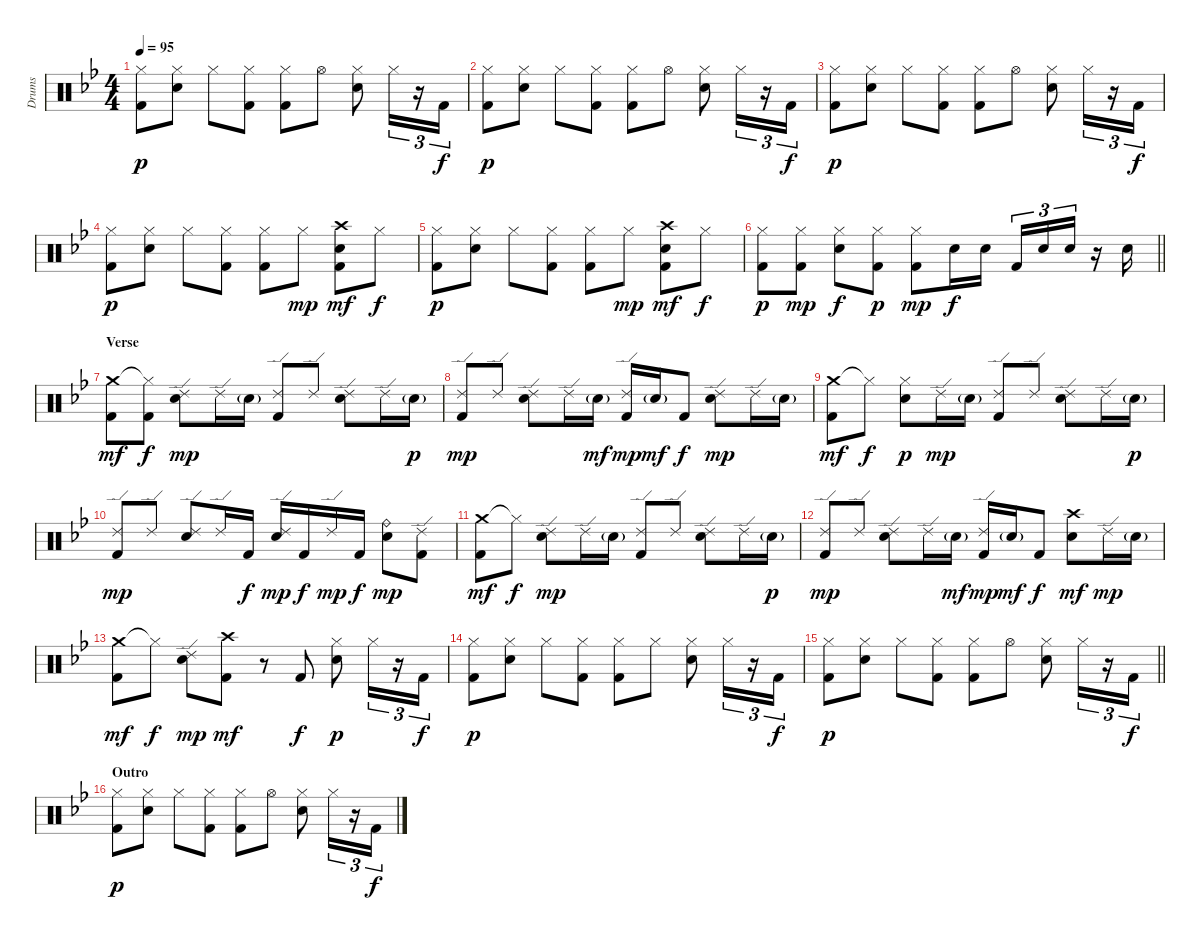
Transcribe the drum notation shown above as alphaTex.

\track ("Drums" "Drums") {instrument percussion}
\staff {score}
\articulation defaults
\ts (4 4)
\tempo 95
\clef neutral
\ks gminor
("Hi-Hat (closed)" "Kick (hit) 2").8{dy p} ("Hi-Hat (closed)" "Electric Snare (hit)").8 "Hi-Hat (closed)".8 ("Hi-Hat (closed)" "Kick (hit) 2").8 ("Hi-Hat (closed)" "Kick (hit) 2").8 "Hi-Hat (open)".8 ("Hi-Hat (closed)" "Electric Snare (hit)").8 "Hi-Hat (closed)".16{tu (3 2)} r.16{tu (3 2)} "Kick (hit) 2".16{tu (3 2) dy f} |
("Hi-Hat (closed)" "Kick (hit) 2").8{dy p} ("Hi-Hat (closed)" "Electric Snare (hit)").8 "Hi-Hat (closed)".8 ("Hi-Hat (closed)" "Kick (hit) 2").8 ("Hi-Hat (closed)" "Kick (hit) 2").8 "Hi-Hat (open)".8 ("Hi-Hat (closed)" "Electric Snare (hit)").8 "Hi-Hat (closed)".16{tu (3 2)} r.16{tu (3 2)} "Kick (hit) 2".16{tu (3 2) dy f} |
("Hi-Hat (closed)" "Kick (hit) 2").8{dy p} ("Hi-Hat (closed)" "Electric Snare (hit)").8 "Hi-Hat (closed)".8 ("Hi-Hat (closed)" "Kick (hit) 2").8 ("Hi-Hat (closed)" "Kick (hit) 2").8 "Hi-Hat (open)".8 ("Hi-Hat (closed)" "Electric Snare (hit)").8 "Hi-Hat (closed)".16{tu (3 2)} r.16{tu (3 2)} "Kick (hit) 2".16{tu (3 2) dy f} |
("Hi-Hat (closed)" "Kick (hit) 2").8{dy p} ("Hi-Hat (closed)" "Electric Snare (hit)").8 "Hi-Hat (closed)".8 ("Hi-Hat (closed)" "Kick (hit) 2").8 ("Hi-Hat (closed)" "Kick (hit) 2").8 "Hi-Hat (closed)".8{dy mp} ("Crash high (hit)" "Electric Snare (hit)" "Kick (hit) 2").8{dy mf} "Hi-Hat (closed)".8{dy f} |
("Hi-Hat (closed)" "Kick (hit) 2").8{dy p} ("Hi-Hat (closed)" "Electric Snare (hit)").8 "Hi-Hat (closed)".8 ("Hi-Hat (closed)" "Kick (hit) 2").8 ("Hi-Hat (closed)" "Kick (hit) 2").8 "Hi-Hat (closed)".8{dy mp} ("Crash high (hit)" "Electric Snare (hit)" "Kick (hit) 2").8{dy mf} "Hi-Hat (closed)".8{dy f} |
\barLineRight lightlight
("Hi-Hat (closed)" "Kick (hit) 2").8{dy p} ("Hi-Hat (closed)" "Kick (hit) 2").8{dy mp} ("Hi-Hat (closed)" "Electric Snare (hit)").8{dy f} ("Hi-Hat (closed)" "Kick (hit) 2").8{dy p} ("Hi-Hat (closed)" "Kick (hit) 2").8{dy mp} "Electric Snare (hit)".16{dy f} "Electric Snare (hit)".16 "Kick (hit) 2".16{tu (3 2)} "Electric Snare (hit)".16{tu (3 2)} "Electric Snare (hit)".16{tu (3 2)} r.16 "Electric Snare (hit)".16 |
\section ("" "Verse")
("Crash medium (hit)" "Kick (hit) 2").8{dy mf} ("Hi-Hat (closed)"{t} "Kick (hit) 2").8{dy f} ("Ride (edge) 2" "Electric Snare (hit)").8{dy mp} "Ride (edge) 2".16 "Electric Snare (hit)"{g}.16 ("Ride (edge) 2" "Kick (hit) 2").8 "Ride (edge) 2".8 ("Ride (edge) 2" "Electric Snare (hit)").8 "Ride (edge) 2".16 "Electric Snare (hit)"{g}.16{dy p} |
("Ride (edge) 2" "Kick (hit) 2").8{dy mp} "Ride (edge) 2".8 ("Ride (edge) 2" "Electric Snare (hit)").8 "Ride (edge) 2".16 "Electric Snare (hit)"{g}.16{dy mf} ("Ride (edge) 2" "Kick (hit) 2").16{dy mp} "Electric Snare (hit)"{g}.16{dy mf} "Kick (hit) 2".8{dy f} ("Ride (edge) 2" "Electric Snare (hit)").8{dy mp} "Ride (edge) 2".16 "Electric Snare (hit)"{g}.16 |
("Crash medium (hit)" "Kick (hit) 2").8{dy mf} "Hi-Hat (closed)"{t}.8{dy f} ("Hi-Hat (closed)" "Electric Snare (hit)").8{dy p} "Ride (edge) 2".16{dy mp} "Electric Snare (hit)"{g}.16 ("Ride (edge) 2" "Kick (hit) 2").8 "Ride (edge) 2".8 ("Ride (edge) 2" "Electric Snare (hit)").8 "Ride (edge) 2".16 "Electric Snare (hit)"{g}.16{dy p} |
("Ride (edge) 2" "Kick (hit) 2").8{dy mp} "Ride (edge) 2".8 ("Ride (edge) 2" "Electric Snare (hit)").8 "Ride (edge) 2".16 "Kick (hit) 2".16{dy f} ("Ride (edge) 2" "Electric Snare (hit)").16{dy mp} "Kick (hit) 2".16{dy f} "Ride (edge) 2".16{dy mp} "Kick (hit) 2".16{dy f} ("Ride (bell)" "Electric Snare (hit)").8{dy mp} ("Ride (edge) 2" "Kick (hit) 2").8 |
("Crash medium (hit)" "Kick (hit) 2").8{dy mf} "Hi-Hat (closed)"{t}.8{dy f} ("Ride (edge) 2" "Electric Snare (hit)").8{dy mp} "Ride (edge) 2".16 "Electric Snare (hit)"{g}.16 ("Ride (edge) 2" "Kick (hit) 2").8 "Ride (edge) 2".8 ("Ride (edge) 2" "Electric Snare (hit)").8 "Ride (edge) 2".16 "Electric Snare (hit)"{g}.16{dy p} |
("Ride (edge) 2" "Kick (hit) 2").8{dy mp} "Ride (edge) 2".8 ("Ride (edge) 2" "Electric Snare (hit)").8 "Ride (edge) 2".16 "Electric Snare (hit)"{g}.16{dy mf} ("Ride (edge) 2" "Kick (hit) 2").16{dy mp} "Electric Snare (hit)"{g}.16{dy mf} "Kick (hit) 2".8{dy f} ("Crash high (hit)" "Electric Snare (hit)").8{dy mf} "Ride (edge) 2".16{dy mp} "Electric Snare (hit)"{g}.16 |
("Crash medium (hit)" "Kick (hit) 2").8{dy mf} "Hi-Hat (closed)"{t}.8{dy f} ("Ride (edge) 2" "Electric Snare (hit)").8{dy mp} ("Crash high (hit)" "Kick (hit) 2").8{dy mf} r.8 "Kick (hit) 2".8{dy f} ("Hi-Hat (closed)" "Electric Snare (hit)").8{dy p} "Hi-Hat (closed)".16{tu (3 2)} r.16{tu (3 2)} "Kick (hit) 2".16{tu (3 2) dy f} |
("Hi-Hat (closed)" "Kick (hit) 2").8{dy p} ("Hi-Hat (closed)" "Electric Snare (hit)").8 "Hi-Hat (closed)".8 ("Hi-Hat (closed)" "Kick (hit) 2").8 ("Hi-Hat (closed)" "Kick (hit) 2").8 "Hi-Hat (closed)".8 ("Hi-Hat (closed)" "Electric Snare (hit)").8 "Hi-Hat (closed)".16{tu (3 2)} r.16{tu (3 2)} "Kick (hit) 2".16{tu (3 2) dy f} |
\barLineRight lightlight
("Hi-Hat (closed)" "Kick (hit) 2").8{dy p} ("Hi-Hat (closed)" "Electric Snare (hit)").8 "Hi-Hat (closed)".8 ("Hi-Hat (closed)" "Kick (hit) 2").8 ("Hi-Hat (closed)" "Kick (hit) 2").8 "Hi-Hat (open)".8 ("Hi-Hat (closed)" "Electric Snare (hit)").8 "Hi-Hat (closed)".16{tu (3 2)} r.16{tu (3 2)} "Kick (hit) 2".16{tu (3 2) dy f} |
\section ("" "Outro")
("Hi-Hat (closed)" "Kick (hit) 2").8{dy p} ("Hi-Hat (closed)" "Electric Snare (hit)").8 "Hi-Hat (closed)".8 ("Hi-Hat (closed)" "Kick (hit) 2").8 ("Hi-Hat (closed)" "Kick (hit) 2").8 "Hi-Hat (open)".8 ("Hi-Hat (closed)" "Electric Snare (hit)").8 "Hi-Hat (closed)".16{tu (3 2)} r.16{tu (3 2)} "Kick (hit) 2".16{tu (3 2) dy f}
